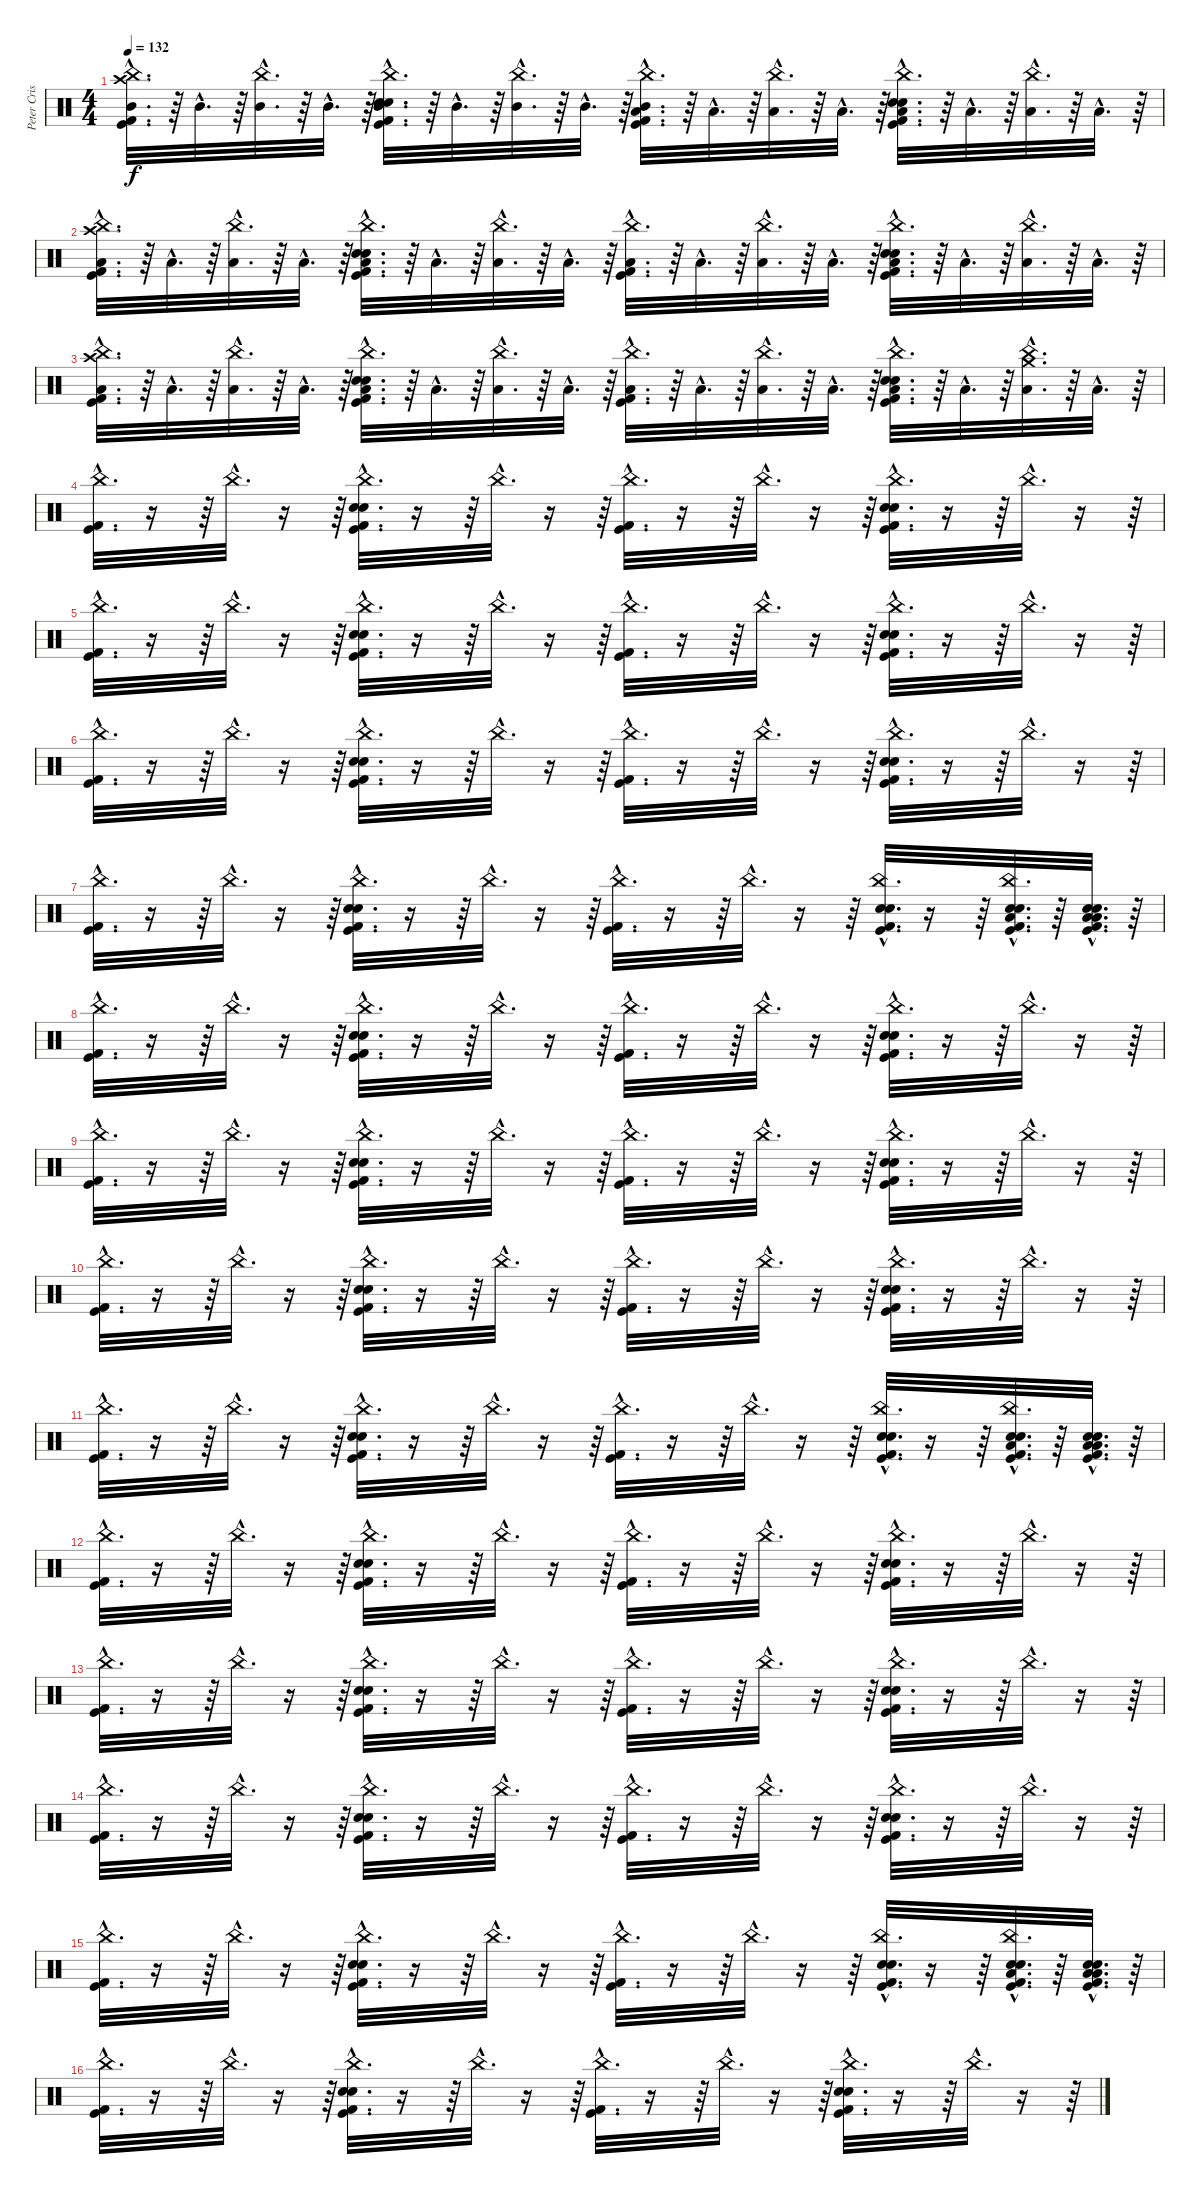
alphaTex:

\track ("Peter Criss" "Peter Cris") {instrument percussion}
\staff {score}
\articulation defaults
\ts (4 4)
\tempo 132
\clef neutral
\ks c
("Kick (hit) 2"{hac} "Kick (hit)"{hac} "China (hit)"{hac} "Mid Tom (hit)"{hac} "Crash high (hit)"{hac}).32{d dy f} r.64 "Mid Tom (hit)"{hac}.32{d} r.64 ("China (hit)"{hac} "Mid Tom (hit)"{hac}).32{d} r.64 "Mid Tom (hit)"{hac}.32{d} r.64 ("Kick (hit) 2"{hac} "Kick (hit)"{hac} "China (hit)"{hac} "Electric Snare (hit)"{hac} "Snare (hit) 2"{hac} "Mid Tom (hit)"{hac}).32{d} r.64 "Mid Tom (hit)"{hac}.32{d} r.64 ("China (hit)"{hac} "Mid Tom (hit)"{hac}).32{d} r.64 "Mid Tom (hit)"{hac}.32{d} r.64 ("Kick (hit) 2"{hac} "Kick (hit)"{hac} "China (hit)"{hac} "Mid Tom (hit)"{hac} "Low Floor Tom (hit)"{hac}).32{d} r.64 "Low Floor Tom (hit)"{hac}.32{d} r.64 ("China (hit)"{hac} "Low Floor Tom (hit)"{hac}).32{d} r.64 "Low Floor Tom (hit)"{hac}.32{d} r.64 ("Kick (hit) 2"{hac} "Kick (hit)"{hac} "China (hit)"{hac} "Electric Snare (hit)"{hac} "Snare (hit) 2"{hac} "Low Floor Tom (hit)"{hac}).32{d} r.64 "Low Floor Tom (hit)"{hac}.32{d} r.64 ("China (hit)"{hac} "Low Floor Tom (hit)"{hac}).32{d} r.64 "Low Floor Tom (hit)"{hac}.32{d} r.64 |
("Kick (hit) 2"{hac} "Kick (hit)"{hac} "China (hit)"{hac} "Low Tom (hit)"{hac} "Crash high (hit)"{hac}).32{d} r.64 "Low Tom (hit)"{hac}.32{d} r.64 ("China (hit)"{hac} "Low Tom (hit)"{hac}).32{d} r.64 "Low Tom (hit)"{hac}.32{d} r.64 ("Kick (hit) 2"{hac} "Kick (hit)"{hac} "China (hit)"{hac} "Electric Snare (hit)"{hac} "Snare (hit) 2"{hac} "Low Tom (hit)"{hac}).32{d} r.64 "Low Tom (hit)"{hac}.32{d} r.64 ("China (hit)"{hac} "Low Tom (hit)"{hac}).32{d} r.64 "Low Tom (hit)"{hac}.32{d} r.64 ("Kick (hit) 2"{hac} "Kick (hit)"{hac} "China (hit)"{hac} "Low Tom (hit)"{hac}).32{d} r.64 "Low Tom (hit)"{hac}.32{d} r.64 ("China (hit)"{hac} "Low Tom (hit)"{hac}).32{d} r.64 "Low Tom (hit)"{hac}.32{d} r.64 ("Kick (hit) 2"{hac} "Kick (hit)"{hac} "China (hit)"{hac} "Electric Snare (hit)"{hac} "Snare (hit) 2"{hac} "Low Tom (hit)"{hac}).32{d} r.64 "Low Tom (hit)"{hac}.32{d} r.64 ("China (hit)"{hac} "Low Tom (hit)"{hac}).32{d} r.64 "Low Tom (hit)"{hac}.32{d} r.64 |
("Kick (hit) 2"{hac} "Kick (hit)"{hac} "China (hit)"{hac} "Low Floor Tom (hit)"{hac} "Crash high (hit)"{hac}).32{d} r.64 "Low Floor Tom (hit)"{hac}.32{d} r.64 ("China (hit)"{hac} "Low Floor Tom (hit)"{hac}).32{d} r.64 "Low Floor Tom (hit)"{hac}.32{d} r.64 ("Kick (hit) 2"{hac} "Kick (hit)"{hac} "China (hit)"{hac} "Electric Snare (hit)"{hac} "Snare (hit) 2"{hac} "Low Floor Tom (hit)"{hac}).32{d} r.64 "Low Floor Tom (hit)"{hac}.32{d} r.64 ("China (hit)"{hac} "Low Floor Tom (hit)"{hac}).32{d} r.64 "Low Floor Tom (hit)"{hac}.32{d} r.64 ("Kick (hit) 2"{hac} "Kick (hit)"{hac} "China (hit)"{hac} "Low Floor Tom (hit)"{hac}).32{d} r.64 "Low Floor Tom (hit)"{hac}.32{d} r.64 ("China (hit)"{hac} "Low Floor Tom (hit)"{hac}).32{d} r.64 "Low Floor Tom (hit)"{hac}.32{d} r.64 ("Kick (hit) 2"{hac} "Kick (hit)"{hac} "China (hit)"{hac} "Electric Snare (hit)"{hac} "Snare (hit) 2"{hac} "Low Floor Tom (hit)"{hac}).32{d} r.64 "Low Floor Tom (hit)"{hac}.32{d} r.64 ("China (hit)"{hac} "Low Floor Tom (hit)"{hac} "Crash medium (hit)"{hac}).32{d} r.64 "Low Floor Tom (hit)"{hac}.32{d} r.64 |
("Kick (hit) 2"{hac} "Kick (hit)"{hac} "China (hit)"{hac}).32{d} r.16 r.64 "China (hit)"{hac}.32{d} r.16 r.64 ("Kick (hit) 2"{hac} "Kick (hit)"{hac} "China (hit)"{hac} "Electric Snare (hit)"{hac} "Snare (hit) 2"{hac}).32{d} r.16 r.64 "China (hit)"{hac}.32{d} r.16 r.64 ("Kick (hit) 2"{hac} "Kick (hit)"{hac} "China (hit)"{hac}).32{d} r.16 r.64 "China (hit)"{hac}.32{d} r.16 r.64 ("Kick (hit) 2"{hac} "Kick (hit)"{hac} "China (hit)"{hac} "Electric Snare (hit)"{hac} "Snare (hit) 2"{hac}).32{d} r.16 r.64 "China (hit)"{hac}.32{d} r.16 r.64 |
("Kick (hit) 2"{hac} "Kick (hit)"{hac} "China (hit)"{hac}).32{d} r.16 r.64 "China (hit)"{hac}.32{d} r.16 r.64 ("Kick (hit) 2"{hac} "Kick (hit)"{hac} "China (hit)"{hac} "Electric Snare (hit)"{hac} "Snare (hit) 2"{hac}).32{d} r.16 r.64 "China (hit)"{hac}.32{d} r.16 r.64 ("Kick (hit) 2"{hac} "Kick (hit)"{hac} "China (hit)"{hac}).32{d} r.16 r.64 "China (hit)"{hac}.32{d} r.16 r.64 ("Kick (hit) 2"{hac} "Kick (hit)"{hac} "China (hit)"{hac} "Electric Snare (hit)"{hac} "Snare (hit) 2"{hac}).32{d} r.16 r.64 "China (hit)"{hac}.32{d} r.16 r.64 |
("Kick (hit) 2"{hac} "Kick (hit)"{hac} "China (hit)"{hac}).32{d} r.16 r.64 "China (hit)"{hac}.32{d} r.16 r.64 ("Kick (hit) 2"{hac} "Kick (hit)"{hac} "China (hit)"{hac} "Electric Snare (hit)"{hac} "Snare (hit) 2"{hac}).32{d} r.16 r.64 "China (hit)"{hac}.32{d} r.16 r.64 ("Kick (hit) 2"{hac} "Kick (hit)"{hac} "China (hit)"{hac}).32{d} r.16 r.64 "China (hit)"{hac}.32{d} r.16 r.64 ("Kick (hit) 2"{hac} "Kick (hit)"{hac} "China (hit)"{hac} "Electric Snare (hit)"{hac} "Snare (hit) 2"{hac}).32{d} r.16 r.64 "China (hit)"{hac}.32{d} r.16 r.64 |
("Kick (hit) 2"{hac} "Kick (hit)"{hac} "China (hit)"{hac}).32{d} r.16 r.64 "China (hit)"{hac}.32{d} r.16 r.64 ("Kick (hit) 2"{hac} "Kick (hit)"{hac} "China (hit)"{hac} "Electric Snare (hit)"{hac} "Snare (hit) 2"{hac}).32{d} r.16 r.64 "China (hit)"{hac}.32{d} r.16 r.64 ("Kick (hit) 2"{hac} "Kick (hit)"{hac} "China (hit)"{hac}).32{d} r.16 r.64 "China (hit)"{hac}.32{d} r.16 r.64 ("Kick (hit) 2"{hac} "Kick (hit)"{hac} "China (hit)"{hac} "Electric Snare (hit)"{hac} "Snare (hit) 2"{hac}).32{d} r.16 r.64 ("China (hit)"{hac} "Electric Snare (hit)"{hac} "Snare (hit) 2"{hac} "Kick (hit) 2"{hac} "Kick (hit)"{hac} "Low Floor Tom (hit)"{hac}).32{d} r.64 ("Electric Snare (hit)"{hac} "Snare (hit) 2"{hac} "Kick (hit) 2"{hac} "Kick (hit)"{hac} "Low Tom (hit)"{hac} "Low Floor Tom (hit)"{hac}).32{d} r.64 |
("Kick (hit) 2"{hac} "Kick (hit)"{hac} "China (hit)"{hac}).32{d} r.16 r.64 "China (hit)"{hac}.32{d} r.16 r.64 ("Kick (hit) 2"{hac} "Kick (hit)"{hac} "China (hit)"{hac} "Electric Snare (hit)"{hac} "Snare (hit) 2"{hac}).32{d} r.16 r.64 "China (hit)"{hac}.32{d} r.16 r.64 ("Kick (hit) 2"{hac} "Kick (hit)"{hac} "China (hit)"{hac}).32{d} r.16 r.64 "China (hit)"{hac}.32{d} r.16 r.64 ("Kick (hit) 2"{hac} "Kick (hit)"{hac} "China (hit)"{hac} "Electric Snare (hit)"{hac} "Snare (hit) 2"{hac}).32{d} r.16 r.64 "China (hit)"{hac}.32{d} r.16 r.64 |
("Kick (hit) 2"{hac} "Kick (hit)"{hac} "China (hit)"{hac}).32{d} r.16 r.64 "China (hit)"{hac}.32{d} r.16 r.64 ("Kick (hit) 2"{hac} "Kick (hit)"{hac} "China (hit)"{hac} "Electric Snare (hit)"{hac} "Snare (hit) 2"{hac}).32{d} r.16 r.64 "China (hit)"{hac}.32{d} r.16 r.64 ("Kick (hit) 2"{hac} "Kick (hit)"{hac} "China (hit)"{hac}).32{d} r.16 r.64 "China (hit)"{hac}.32{d} r.16 r.64 ("Kick (hit) 2"{hac} "Kick (hit)"{hac} "China (hit)"{hac} "Electric Snare (hit)"{hac} "Snare (hit) 2"{hac}).32{d} r.16 r.64 "China (hit)"{hac}.32{d} r.16 r.64 |
("Kick (hit) 2"{hac} "Kick (hit)"{hac} "China (hit)"{hac}).32{d} r.16 r.64 "China (hit)"{hac}.32{d} r.16 r.64 ("Kick (hit) 2"{hac} "Kick (hit)"{hac} "China (hit)"{hac} "Electric Snare (hit)"{hac} "Snare (hit) 2"{hac}).32{d} r.16 r.64 "China (hit)"{hac}.32{d} r.16 r.64 ("Kick (hit) 2"{hac} "Kick (hit)"{hac} "China (hit)"{hac}).32{d} r.16 r.64 "China (hit)"{hac}.32{d} r.16 r.64 ("Kick (hit) 2"{hac} "Kick (hit)"{hac} "China (hit)"{hac} "Electric Snare (hit)"{hac} "Snare (hit) 2"{hac}).32{d} r.16 r.64 "China (hit)"{hac}.32{d} r.16 r.64 |
("Kick (hit) 2"{hac} "Kick (hit)"{hac} "China (hit)"{hac}).32{d} r.16 r.64 "China (hit)"{hac}.32{d} r.16 r.64 ("Kick (hit) 2"{hac} "Kick (hit)"{hac} "China (hit)"{hac} "Electric Snare (hit)"{hac} "Snare (hit) 2"{hac}).32{d} r.16 r.64 "China (hit)"{hac}.32{d} r.16 r.64 ("Kick (hit) 2"{hac} "Kick (hit)"{hac} "China (hit)"{hac}).32{d} r.16 r.64 "China (hit)"{hac}.32{d} r.16 r.64 ("Kick (hit) 2"{hac} "Kick (hit)"{hac} "China (hit)"{hac} "Electric Snare (hit)"{hac} "Snare (hit) 2"{hac}).32{d} r.16 r.64 ("China (hit)"{hac} "Electric Snare (hit)"{hac} "Snare (hit) 2"{hac} "Kick (hit) 2"{hac} "Kick (hit)"{hac} "Low Floor Tom (hit)"{hac}).32{d} r.64 ("Electric Snare (hit)"{hac} "Snare (hit) 2"{hac} "Kick (hit) 2"{hac} "Kick (hit)"{hac} "Low Tom (hit)"{hac} "Low Floor Tom (hit)"{hac}).32{d} r.64 |
("Kick (hit) 2"{hac} "Kick (hit)"{hac} "China (hit)"{hac}).32{d} r.16 r.64 "China (hit)"{hac}.32{d} r.16 r.64 ("Kick (hit) 2"{hac} "Kick (hit)"{hac} "China (hit)"{hac} "Electric Snare (hit)"{hac} "Snare (hit) 2"{hac}).32{d} r.16 r.64 "China (hit)"{hac}.32{d} r.16 r.64 ("Kick (hit) 2"{hac} "Kick (hit)"{hac} "China (hit)"{hac}).32{d} r.16 r.64 "China (hit)"{hac}.32{d} r.16 r.64 ("Kick (hit) 2"{hac} "Kick (hit)"{hac} "China (hit)"{hac} "Electric Snare (hit)"{hac} "Snare (hit) 2"{hac}).32{d} r.16 r.64 "China (hit)"{hac}.32{d} r.16 r.64 |
("Kick (hit) 2"{hac} "Kick (hit)"{hac} "China (hit)"{hac}).32{d} r.16 r.64 "China (hit)"{hac}.32{d} r.16 r.64 ("Kick (hit) 2"{hac} "Kick (hit)"{hac} "China (hit)"{hac} "Electric Snare (hit)"{hac} "Snare (hit) 2"{hac}).32{d} r.16 r.64 "China (hit)"{hac}.32{d} r.16 r.64 ("Kick (hit) 2"{hac} "Kick (hit)"{hac} "China (hit)"{hac}).32{d} r.16 r.64 "China (hit)"{hac}.32{d} r.16 r.64 ("Kick (hit) 2"{hac} "Kick (hit)"{hac} "China (hit)"{hac} "Electric Snare (hit)"{hac} "Snare (hit) 2"{hac}).32{d} r.16 r.64 "China (hit)"{hac}.32{d} r.16 r.64 |
("Kick (hit) 2"{hac} "Kick (hit)"{hac} "China (hit)"{hac}).32{d} r.16 r.64 "China (hit)"{hac}.32{d} r.16 r.64 ("Kick (hit) 2"{hac} "Kick (hit)"{hac} "China (hit)"{hac} "Electric Snare (hit)"{hac} "Snare (hit) 2"{hac}).32{d} r.16 r.64 "China (hit)"{hac}.32{d} r.16 r.64 ("Kick (hit) 2"{hac} "Kick (hit)"{hac} "China (hit)"{hac}).32{d} r.16 r.64 "China (hit)"{hac}.32{d} r.16 r.64 ("Kick (hit) 2"{hac} "Kick (hit)"{hac} "China (hit)"{hac} "Electric Snare (hit)"{hac} "Snare (hit) 2"{hac}).32{d} r.16 r.64 "China (hit)"{hac}.32{d} r.16 r.64 |
("Kick (hit) 2"{hac} "Kick (hit)"{hac} "China (hit)"{hac}).32{d} r.16 r.64 "China (hit)"{hac}.32{d} r.16 r.64 ("Kick (hit) 2"{hac} "Kick (hit)"{hac} "China (hit)"{hac} "Electric Snare (hit)"{hac} "Snare (hit) 2"{hac}).32{d} r.16 r.64 "China (hit)"{hac}.32{d} r.16 r.64 ("Kick (hit) 2"{hac} "Kick (hit)"{hac} "China (hit)"{hac}).32{d} r.16 r.64 "China (hit)"{hac}.32{d} r.16 r.64 ("Kick (hit) 2"{hac} "Kick (hit)"{hac} "China (hit)"{hac} "Electric Snare (hit)"{hac} "Snare (hit) 2"{hac}).32{d} r.16 r.64 ("China (hit)"{hac} "Electric Snare (hit)"{hac} "Snare (hit) 2"{hac} "Kick (hit) 2"{hac} "Kick (hit)"{hac} "Low Floor Tom (hit)"{hac}).32{d} r.64 ("Electric Snare (hit)"{hac} "Snare (hit) 2"{hac} "Kick (hit) 2"{hac} "Kick (hit)"{hac} "Low Tom (hit)"{hac} "Low Floor Tom (hit)"{hac}).32{d} r.64 |
("Kick (hit) 2"{hac} "Kick (hit)"{hac} "China (hit)"{hac}).32{d} r.16 r.64 "China (hit)"{hac}.32{d} r.16 r.64 ("Kick (hit) 2"{hac} "Kick (hit)"{hac} "China (hit)"{hac} "Electric Snare (hit)"{hac} "Snare (hit) 2"{hac}).32{d} r.16 r.64 "China (hit)"{hac}.32{d} r.16 r.64 ("Kick (hit) 2"{hac} "Kick (hit)"{hac} "China (hit)"{hac}).32{d} r.16 r.64 "China (hit)"{hac}.32{d} r.16 r.64 ("Kick (hit) 2"{hac} "Kick (hit)"{hac} "China (hit)"{hac} "Electric Snare (hit)"{hac} "Snare (hit) 2"{hac}).32{d} r.16 r.64 "China (hit)"{hac}.32{d} r.16 r.64
